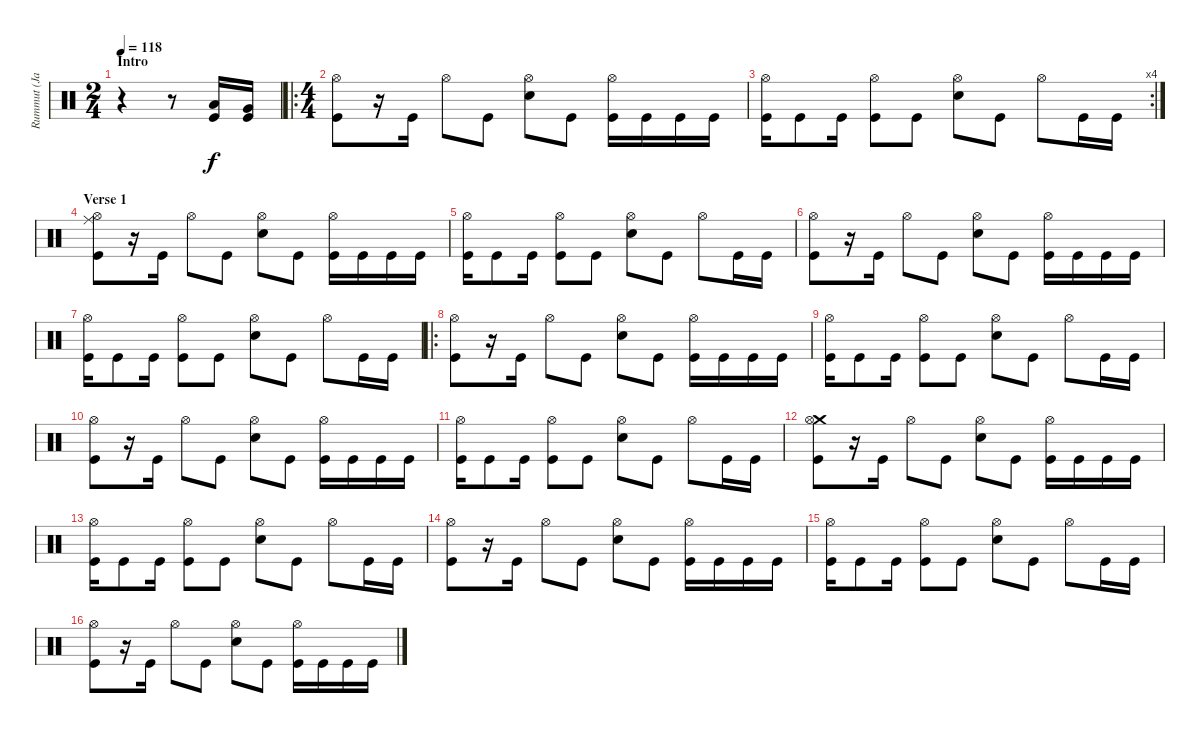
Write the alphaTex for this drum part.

\track ("Rummut (Janne)" "Rummut (Ja") {instrument percussion}
\staff {score}
\articulation defaults
\ts (2 4)
\section ("" "Intro")
\tempo 118
\clef neutral
\ks c
r.4{dy f} r.8 ("Low Tom (hit)" "Kick (hit)").16 ("Very Low Tom (hit)" "Kick (hit)").16 |
\ro
\ts (4 4)
("Hi-Hat (open)" "Kick (hit)").8 r.16 "Kick (hit)".16 "Hi-Hat (open)".8 "Kick (hit)".8 ("Hi-Hat (open)" "Snare (hit) 2").8 "Kick (hit)".8 ("Hi-Hat (open)" "Kick (hit)").16 "Kick (hit)".16 "Kick (hit)".16 "Kick (hit)".16 |
\rc 4
("Hi-Hat (open)" "Kick (hit)").16 "Kick (hit)".8 "Kick (hit)".16 ("Hi-Hat (open)" "Kick (hit)").8 "Kick (hit)".8 ("Hi-Hat (open)" "Snare (hit) 2").8 "Kick (hit)".8 "Hi-Hat (open)".8 "Kick (hit)".16 "Kick (hit)".16 |
\section ("" "Verse 1")
("Ride (middle)" "Hi-Hat (open)" "Kick (hit)").8 r.16 "Kick (hit)".16 "Hi-Hat (open)".8 "Kick (hit)".8 ("Hi-Hat (open)" "Snare (hit) 2").8 "Kick (hit)".8 ("Hi-Hat (open)" "Kick (hit)").16 "Kick (hit)".16 "Kick (hit)".16 "Kick (hit)".16 |
("Hi-Hat (open)" "Kick (hit)").16 "Kick (hit)".8 "Kick (hit)".16 ("Hi-Hat (open)" "Kick (hit)").8 "Kick (hit)".8 ("Hi-Hat (open)" "Snare (hit) 2").8 "Kick (hit)".8 "Hi-Hat (open)".8 "Kick (hit)".16 "Kick (hit)".16 |
("Hi-Hat (open)" "Kick (hit)").8 r.16 "Kick (hit)".16 "Hi-Hat (open)".8 "Kick (hit)".8 ("Hi-Hat (open)" "Snare (hit) 2").8 "Kick (hit)".8 ("Hi-Hat (open)" "Kick (hit)").16 "Kick (hit)".16 "Kick (hit)".16 "Kick (hit)".16 |
("Hi-Hat (open)" "Kick (hit)").16 "Kick (hit)".8 "Kick (hit)".16 ("Hi-Hat (open)" "Kick (hit)").8 "Kick (hit)".8 ("Hi-Hat (open)" "Snare (hit) 2").8 "Kick (hit)".8 "Hi-Hat (open)".8 "Kick (hit)".16 "Kick (hit)".16 |
\ro
("Hi-Hat (open)" "Kick (hit)").8 r.16 "Kick (hit)".16 "Hi-Hat (open)".8 "Kick (hit)".8 ("Hi-Hat (open)" "Snare (hit) 2").8 "Kick (hit)".8 ("Hi-Hat (open)" "Kick (hit)").16 "Kick (hit)".16 "Kick (hit)".16 "Kick (hit)".16 |
("Hi-Hat (open)" "Kick (hit)").16 "Kick (hit)".8 "Kick (hit)".16 ("Hi-Hat (open)" "Kick (hit)").8 "Kick (hit)".8 ("Hi-Hat (open)" "Snare (hit) 2").8 "Kick (hit)".8 "Hi-Hat (open)".8 "Kick (hit)".16 "Kick (hit)".16 |
("Hi-Hat (open)" "Kick (hit)").8 r.16 "Kick (hit)".16 "Hi-Hat (open)".8 "Kick (hit)".8 ("Hi-Hat (open)" "Snare (hit) 2").8 "Kick (hit)".8 ("Hi-Hat (open)" "Kick (hit)").16 "Kick (hit)".16 "Kick (hit)".16 "Kick (hit)".16 |
("Hi-Hat (open)" "Kick (hit)").16 "Kick (hit)".8 "Kick (hit)".16 ("Hi-Hat (open)" "Kick (hit)").8 "Kick (hit)".8 ("Hi-Hat (open)" "Snare (hit) 2").8 "Kick (hit)".8 "Hi-Hat (open)".8 "Kick (hit)".16 "Kick (hit)".16 |
("Crash medium (hit)" "Hi-Hat (open)" "Kick (hit)").8 r.16 "Kick (hit)".16 "Hi-Hat (open)".8 "Kick (hit)".8 ("Hi-Hat (open)" "Snare (hit) 2").8 "Kick (hit)".8 ("Hi-Hat (open)" "Kick (hit)").16 "Kick (hit)".16 "Kick (hit)".16 "Kick (hit)".16 |
("Hi-Hat (open)" "Kick (hit)").16 "Kick (hit)".8 "Kick (hit)".16 ("Hi-Hat (open)" "Kick (hit)").8 "Kick (hit)".8 ("Hi-Hat (open)" "Snare (hit) 2").8 "Kick (hit)".8 "Hi-Hat (open)".8 "Kick (hit)".16 "Kick (hit)".16 |
("Hi-Hat (open)" "Kick (hit)").8 r.16 "Kick (hit)".16 "Hi-Hat (open)".8 "Kick (hit)".8 ("Hi-Hat (open)" "Snare (hit) 2").8 "Kick (hit)".8 ("Hi-Hat (open)" "Kick (hit)").16 "Kick (hit)".16 "Kick (hit)".16 "Kick (hit)".16 |
("Hi-Hat (open)" "Kick (hit)").16 "Kick (hit)".8 "Kick (hit)".16 ("Hi-Hat (open)" "Kick (hit)").8 "Kick (hit)".8 ("Hi-Hat (open)" "Snare (hit) 2").8 "Kick (hit)".8 "Hi-Hat (open)".8 "Kick (hit)".16 "Kick (hit)".16 |
("Hi-Hat (open)" "Kick (hit)").8 r.16 "Kick (hit)".16 "Hi-Hat (open)".8 "Kick (hit)".8 ("Hi-Hat (open)" "Snare (hit) 2").8 "Kick (hit)".8 ("Hi-Hat (open)" "Kick (hit)").16 "Kick (hit)".16 "Kick (hit)".16 "Kick (hit)".16
